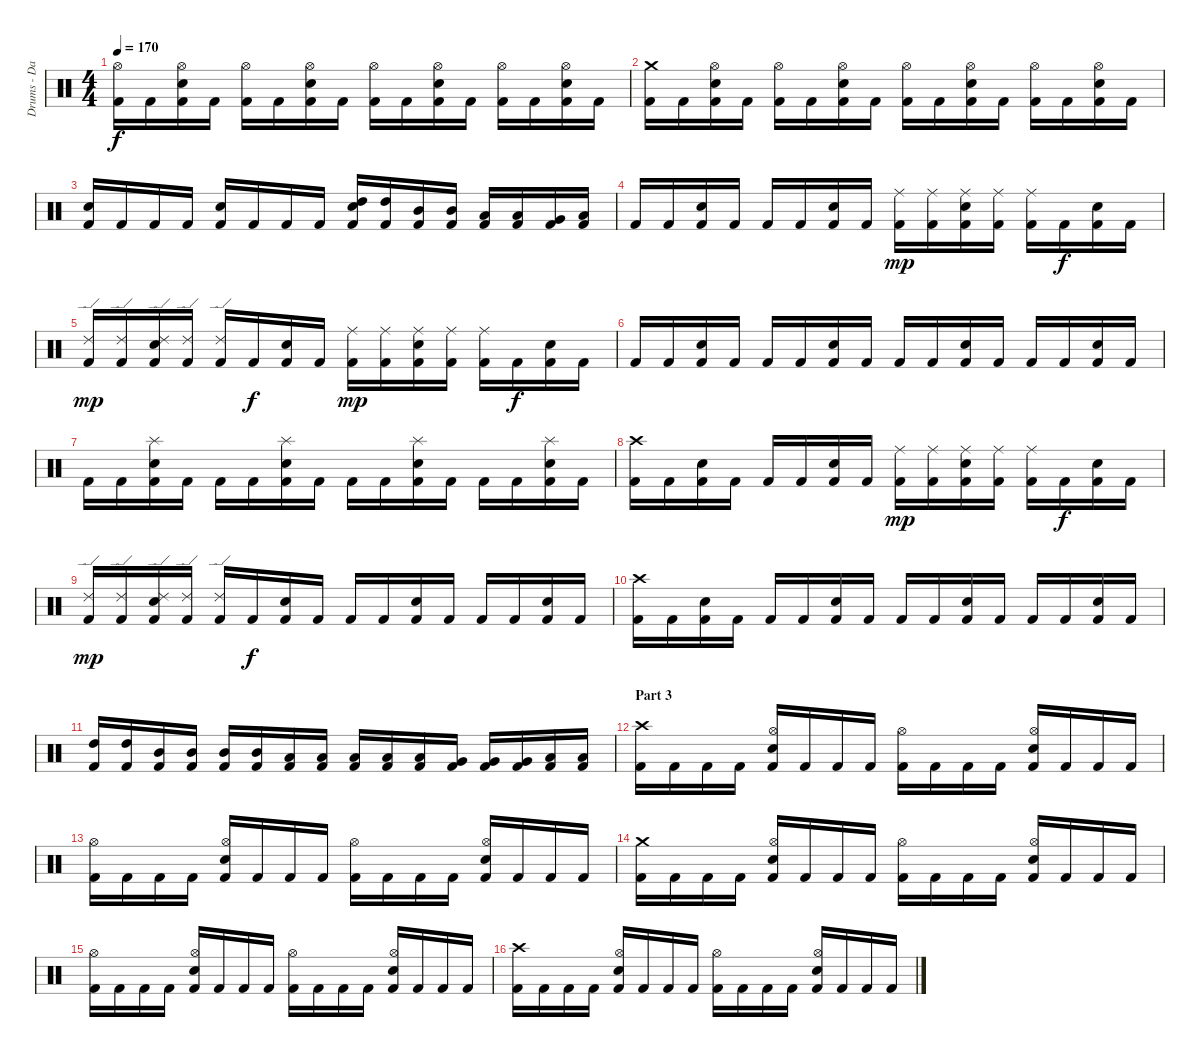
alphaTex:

\track ("Drums - Daniel Zimmermann" "Drums - Da") {instrument percussion}
\staff {score}
\articulation defaults
\ts (4 4)
\tempo 170
\clef neutral
\ks c
("Kick (hit) 2" "Hi-Hat (open)").16{dy f} "Kick (hit) 2".16 ("Kick (hit) 2" "Electric Snare (hit)" "Hi-Hat (open)").16 "Kick (hit) 2".16 ("Kick (hit) 2" "Hi-Hat (open)").16 "Kick (hit) 2".16 ("Kick (hit) 2" "Electric Snare (hit)" "Hi-Hat (open)").16 "Kick (hit) 2".16 ("Kick (hit) 2" "Hi-Hat (open)").16 "Kick (hit) 2".16 ("Kick (hit) 2" "Electric Snare (hit)" "Hi-Hat (open)").16 "Kick (hit) 2".16 ("Kick (hit) 2" "Hi-Hat (open)").16 "Kick (hit) 2".16 ("Kick (hit) 2" "Electric Snare (hit)" "Hi-Hat (open)").16 "Kick (hit) 2".16 |
("Kick (hit) 2" "Crash medium (hit)").16 "Kick (hit) 2".16 ("Kick (hit) 2" "Electric Snare (hit)" "Hi-Hat (open)").16 "Kick (hit) 2".16 ("Kick (hit) 2" "Hi-Hat (open)").16 "Kick (hit) 2".16 ("Kick (hit) 2" "Electric Snare (hit)" "Hi-Hat (open)").16 "Kick (hit) 2".16 ("Kick (hit) 2" "Hi-Hat (open)").16 "Kick (hit) 2".16 ("Kick (hit) 2" "Electric Snare (hit)" "Hi-Hat (open)").16 "Kick (hit) 2".16 ("Kick (hit) 2" "Hi-Hat (open)").16 "Kick (hit) 2".16 ("Kick (hit) 2" "Electric Snare (hit)" "Hi-Hat (open)").16 "Kick (hit) 2".16 |
("Kick (hit) 2" "Electric Snare (hit)").16 "Kick (hit) 2".16 "Kick (hit) 2".16 "Kick (hit) 2".16 ("Kick (hit) 2" "Electric Snare (hit)").16 "Kick (hit) 2".16 "Kick (hit) 2".16 "Kick (hit) 2".16 ("Kick (hit) 2" "Electric Snare (hit)" "High Tom (hit)").16 ("Kick (hit) 2" "High Tom (hit)").16 ("Kick (hit) 2" "Mid Tom (hit)").16 ("Kick (hit) 2" "Mid Tom (hit)").16 ("Kick (hit) 2" "Low Tom (hit)").16 ("Kick (hit) 2" "Low Tom (hit)").16 ("Kick (hit) 2" "Very Low Tom (hit)").16 ("Kick (hit) 2" "Low Floor Tom (hit)").16 |
"Kick (hit) 2".16 "Kick (hit) 2".16 ("Kick (hit) 2" "Electric Snare (hit)").16 "Kick (hit) 2".16 "Kick (hit) 2".16 "Kick (hit) 2".16 ("Kick (hit) 2" "Electric Snare (hit)").16 "Kick (hit) 2".16 ("Kick (hit) 2" "Ride (middle)").16{dy mp} ("Kick (hit) 2" "Ride (middle)").16 ("Kick (hit) 2" "Electric Snare (hit)" "Ride (middle)").16 ("Kick (hit) 2" "Ride (middle)").16 ("Kick (hit) 2" "Ride (middle)").16 "Kick (hit) 2".16{dy f} ("Kick (hit) 2" "Electric Snare (hit)").16 "Kick (hit) 2".16 |
("Kick (hit) 2" "Ride (edge) 2").16{dy mp} ("Kick (hit) 2" "Ride (edge) 2").16 ("Kick (hit) 2" "Electric Snare (hit)" "Ride (edge) 2").16 ("Kick (hit) 2" "Ride (edge) 2").16 ("Kick (hit) 2" "Ride (edge) 2").16 "Kick (hit) 2".16{dy f} ("Kick (hit) 2" "Electric Snare (hit)").16 "Kick (hit) 2".16 ("Kick (hit) 2" "Ride (middle)").16{dy mp} ("Kick (hit) 2" "Ride (middle)").16 ("Kick (hit) 2" "Electric Snare (hit)" "Ride (middle)").16 ("Kick (hit) 2" "Ride (middle)").16 ("Kick (hit) 2" "Ride (middle)").16 "Kick (hit) 2".16{dy f} ("Kick (hit) 2" "Electric Snare (hit)").16 "Kick (hit) 2".16 |
"Kick (hit) 2".16 "Kick (hit) 2".16 ("Kick (hit) 2" "Electric Snare (hit)").16 "Kick (hit) 2".16 "Kick (hit) 2".16 "Kick (hit) 2".16 ("Kick (hit) 2" "Electric Snare (hit)").16 "Kick (hit) 2".16 "Kick (hit) 2".16 "Kick (hit) 2".16 ("Kick (hit) 2" "Electric Snare (hit)").16 "Kick (hit) 2".16 "Kick (hit) 2".16 "Kick (hit) 2".16 ("Kick (hit) 2" "Electric Snare (hit)").16 "Kick (hit) 2".16 |
"Kick (hit) 2".16 "Kick (hit) 2".16 ("Kick (hit) 2" "Electric Snare (hit)" "Splash (hit)").16 "Kick (hit) 2".16 "Kick (hit) 2".16 "Kick (hit) 2".16 ("Kick (hit) 2" "Electric Snare (hit)" "Splash (hit)").16 "Kick (hit) 2".16 "Kick (hit) 2".16 "Kick (hit) 2".16 ("Kick (hit) 2" "Electric Snare (hit)" "Splash (hit)").16 "Kick (hit) 2".16 "Kick (hit) 2".16 "Kick (hit) 2".16 ("Kick (hit) 2" "Electric Snare (hit)" "Splash (hit)").16 "Kick (hit) 2".16 |
("Kick (hit) 2" "Crash high (hit)").16 "Kick (hit) 2".16 ("Kick (hit) 2" "Electric Snare (hit)").16 "Kick (hit) 2".16 "Kick (hit) 2".16 "Kick (hit) 2".16 ("Kick (hit) 2" "Electric Snare (hit)").16 "Kick (hit) 2".16 ("Kick (hit) 2" "Ride (middle)").16{dy mp} ("Kick (hit) 2" "Ride (middle)").16 ("Kick (hit) 2" "Electric Snare (hit)" "Ride (middle)").16 ("Kick (hit) 2" "Ride (middle)").16 ("Kick (hit) 2" "Ride (middle)").16 "Kick (hit) 2".16{dy f} ("Kick (hit) 2" "Electric Snare (hit)").16 "Kick (hit) 2".16 |
("Kick (hit) 2" "Ride (edge) 2").16{dy mp} ("Kick (hit) 2" "Ride (edge) 2").16 ("Kick (hit) 2" "Electric Snare (hit)" "Ride (edge) 2").16 ("Kick (hit) 2" "Ride (edge) 2").16 ("Kick (hit) 2" "Ride (edge) 2").16 "Kick (hit) 2".16{dy f} ("Kick (hit) 2" "Electric Snare (hit)").16 "Kick (hit) 2".16 "Kick (hit) 2".16 "Kick (hit) 2".16 ("Kick (hit) 2" "Electric Snare (hit)").16 "Kick (hit) 2".16 "Kick (hit) 2".16 "Kick (hit) 2".16 ("Kick (hit) 2" "Electric Snare (hit)").16 "Kick (hit) 2".16 |
("Kick (hit) 2" "Crash high (hit)").16 "Kick (hit) 2".16 ("Kick (hit) 2" "Electric Snare (hit)").16 "Kick (hit) 2".16 "Kick (hit) 2".16 "Kick (hit) 2".16 ("Kick (hit) 2" "Electric Snare (hit)").16 "Kick (hit) 2".16 "Kick (hit) 2".16 "Kick (hit) 2".16 ("Kick (hit) 2" "Electric Snare (hit)").16 "Kick (hit) 2".16 "Kick (hit) 2".16 "Kick (hit) 2".16 ("Kick (hit) 2" "Electric Snare (hit)").16 "Kick (hit) 2".16 |
("Kick (hit) 2" "High Tom (hit)").16 ("Kick (hit) 2" "High Tom (hit)").16 ("Kick (hit) 2" "Mid Tom (hit)").16 ("Kick (hit) 2" "Mid Tom (hit)").16 ("Kick (hit) 2" "Mid Tom (hit)").16 ("Kick (hit) 2" "Mid Tom (hit)").16 ("Kick (hit) 2" "Low Tom (hit)").16 ("Kick (hit) 2" "Low Tom (hit)").16 ("Kick (hit) 2" "Low Tom (hit)").16 ("Kick (hit) 2" "Low Tom (hit)").16 ("Kick (hit) 2" "Low Tom (hit)").16 ("Kick (hit) 2" "Very Low Tom (hit)").16 ("Kick (hit) 2" "Very Low Tom (hit)").16 ("Kick (hit) 2" "Very Low Tom (hit)").16 ("Kick (hit) 2" "Low Floor Tom (hit)").16 ("Kick (hit) 2" "Low Floor Tom (hit)").16 |
\section ("" "Part 3")
("Kick (hit) 2" "Crash high (hit)").16 "Kick (hit) 2".16 "Kick (hit) 2".16 "Kick (hit) 2".16 ("Kick (hit) 2" "Electric Snare (hit)" "Hi-Hat (open)").16 "Kick (hit) 2".16 "Kick (hit) 2".16 "Kick (hit) 2".16 ("Kick (hit) 2" "Hi-Hat (open)").16 "Kick (hit) 2".16 "Kick (hit) 2".16 "Kick (hit) 2".16 ("Kick (hit) 2" "Electric Snare (hit)" "Hi-Hat (open)").16 "Kick (hit) 2".16 "Kick (hit) 2".16 "Kick (hit) 2".16 |
("Kick (hit) 2" "Hi-Hat (open)").16 "Kick (hit) 2".16 "Kick (hit) 2".16 "Kick (hit) 2".16 ("Kick (hit) 2" "Electric Snare (hit)" "Hi-Hat (open)").16 "Kick (hit) 2".16 "Kick (hit) 2".16 "Kick (hit) 2".16 ("Kick (hit) 2" "Hi-Hat (open)").16 "Kick (hit) 2".16 "Kick (hit) 2".16 "Kick (hit) 2".16 ("Kick (hit) 2" "Electric Snare (hit)" "Hi-Hat (open)").16 "Kick (hit) 2".16 "Kick (hit) 2".16 "Kick (hit) 2".16 |
("Kick (hit) 2" "Crash medium (hit)").16 "Kick (hit) 2".16 "Kick (hit) 2".16 "Kick (hit) 2".16 ("Kick (hit) 2" "Electric Snare (hit)" "Hi-Hat (open)").16 "Kick (hit) 2".16 "Kick (hit) 2".16 "Kick (hit) 2".16 ("Kick (hit) 2" "Hi-Hat (open)").16 "Kick (hit) 2".16 "Kick (hit) 2".16 "Kick (hit) 2".16 ("Kick (hit) 2" "Electric Snare (hit)" "Hi-Hat (open)").16 "Kick (hit) 2".16 "Kick (hit) 2".16 "Kick (hit) 2".16 |
("Kick (hit) 2" "Hi-Hat (open)").16 "Kick (hit) 2".16 "Kick (hit) 2".16 "Kick (hit) 2".16 ("Kick (hit) 2" "Electric Snare (hit)" "Hi-Hat (open)").16 "Kick (hit) 2".16 "Kick (hit) 2".16 "Kick (hit) 2".16 ("Kick (hit) 2" "Hi-Hat (open)").16 "Kick (hit) 2".16 "Kick (hit) 2".16 "Kick (hit) 2".16 ("Kick (hit) 2" "Electric Snare (hit)" "Hi-Hat (open)").16 "Kick (hit) 2".16 "Kick (hit) 2".16 "Kick (hit) 2".16 |
("Kick (hit) 2" "Crash high (hit)").16 "Kick (hit) 2".16 "Kick (hit) 2".16 "Kick (hit) 2".16 ("Kick (hit) 2" "Electric Snare (hit)" "Hi-Hat (open)").16 "Kick (hit) 2".16 "Kick (hit) 2".16 "Kick (hit) 2".16 ("Kick (hit) 2" "Hi-Hat (open)").16 "Kick (hit) 2".16 "Kick (hit) 2".16 "Kick (hit) 2".16 ("Kick (hit) 2" "Electric Snare (hit)" "Hi-Hat (open)").16 "Kick (hit) 2".16 "Kick (hit) 2".16 "Kick (hit) 2".16
